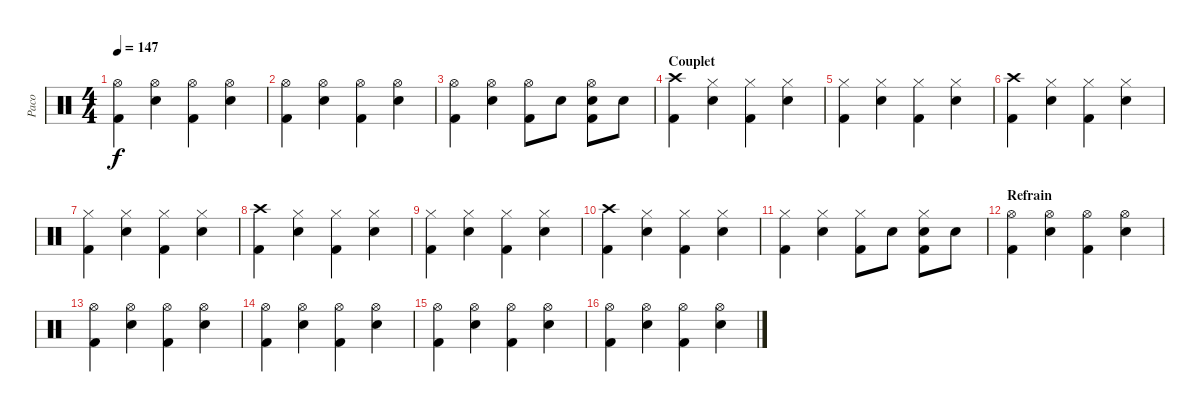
\track ("Paco" "Paco") {instrument percussion}
\staff {score}
\articulation defaults
\ts (4 4)
\tempo 147
\clef neutral
\ks c
("Hi-Hat (open)" "Kick (hit) 2").4{dy f} ("Hi-Hat (open)" "Snare (hit) 2").4 ("Hi-Hat (open)" "Kick (hit) 2").4 ("Hi-Hat (open)" "Snare (hit) 2").4 |
("Hi-Hat (open)" "Kick (hit) 2").4 ("Hi-Hat (open)" "Snare (hit) 2").4 ("Hi-Hat (open)" "Kick (hit) 2").4 ("Hi-Hat (open)" "Snare (hit) 2").4 |
("Hi-Hat (open)" "Kick (hit) 2").4 ("Hi-Hat (open)" "Snare (hit) 2").4 ("Hi-Hat (open)" "Kick (hit) 2").8 "Snare (hit) 2".8 ("Hi-Hat (open)" "Snare (hit) 2" "Kick (hit) 2").8 "Snare (hit) 2".8 |
\section ("" "Couplet")
("Crash high (hit)" "Kick (hit) 2").4 ("Hi-Hat (closed)" "Snare (hit) 2").4 ("Hi-Hat (closed)" "Kick (hit) 2").4 ("Hi-Hat (closed)" "Snare (hit) 2").4 |
("Hi-Hat (closed)" "Kick (hit) 2").4 ("Hi-Hat (closed)" "Snare (hit) 2").4 ("Hi-Hat (closed)" "Kick (hit) 2").4 ("Hi-Hat (closed)" "Snare (hit) 2").4 |
("Crash high (hit)" "Kick (hit) 2").4 ("Hi-Hat (closed)" "Snare (hit) 2").4 ("Hi-Hat (closed)" "Kick (hit) 2").4 ("Hi-Hat (closed)" "Snare (hit) 2").4 |
("Hi-Hat (closed)" "Kick (hit) 2").4 ("Hi-Hat (closed)" "Snare (hit) 2").4 ("Hi-Hat (closed)" "Kick (hit) 2").4 ("Hi-Hat (closed)" "Snare (hit) 2").4 |
("Crash high (hit)" "Kick (hit) 2").4 ("Hi-Hat (closed)" "Snare (hit) 2").4 ("Hi-Hat (closed)" "Kick (hit) 2").4 ("Hi-Hat (closed)" "Snare (hit) 2").4 |
("Hi-Hat (closed)" "Kick (hit) 2").4 ("Hi-Hat (closed)" "Snare (hit) 2").4 ("Hi-Hat (closed)" "Kick (hit) 2").4 ("Hi-Hat (closed)" "Snare (hit) 2").4 |
("Crash high (hit)" "Kick (hit) 2").4 ("Hi-Hat (closed)" "Snare (hit) 2").4 ("Hi-Hat (closed)" "Kick (hit) 2").4 ("Hi-Hat (closed)" "Snare (hit) 2").4 |
("Hi-Hat (closed)" "Kick (hit) 2").4 ("Hi-Hat (closed)" "Snare (hit) 2").4 ("Hi-Hat (closed)" "Kick (hit) 2").8 "Snare (hit) 2".8 ("Hi-Hat (closed)" "Snare (hit) 2" "Kick (hit) 2").8 "Snare (hit) 2".8 |
\section ("" "Refrain")
("Hi-Hat (open)" "Kick (hit) 2").4 ("Hi-Hat (open)" "Snare (hit) 2").4 ("Hi-Hat (open)" "Kick (hit) 2").4 ("Hi-Hat (open)" "Snare (hit) 2").4 |
("Hi-Hat (open)" "Kick (hit) 2").4 ("Hi-Hat (open)" "Snare (hit) 2").4 ("Hi-Hat (open)" "Kick (hit) 2").4 ("Hi-Hat (open)" "Snare (hit) 2").4 |
("Hi-Hat (open)" "Kick (hit) 2").4 ("Hi-Hat (open)" "Snare (hit) 2").4 ("Hi-Hat (open)" "Kick (hit) 2").4 ("Hi-Hat (open)" "Snare (hit) 2").4 |
("Hi-Hat (open)" "Kick (hit) 2").4 ("Hi-Hat (open)" "Snare (hit) 2").4 ("Hi-Hat (open)" "Kick (hit) 2").4 ("Hi-Hat (open)" "Snare (hit) 2").4 |
("Hi-Hat (open)" "Kick (hit) 2").4 ("Hi-Hat (open)" "Snare (hit) 2").4 ("Hi-Hat (open)" "Kick (hit) 2").4 ("Hi-Hat (open)" "Snare (hit) 2").4
